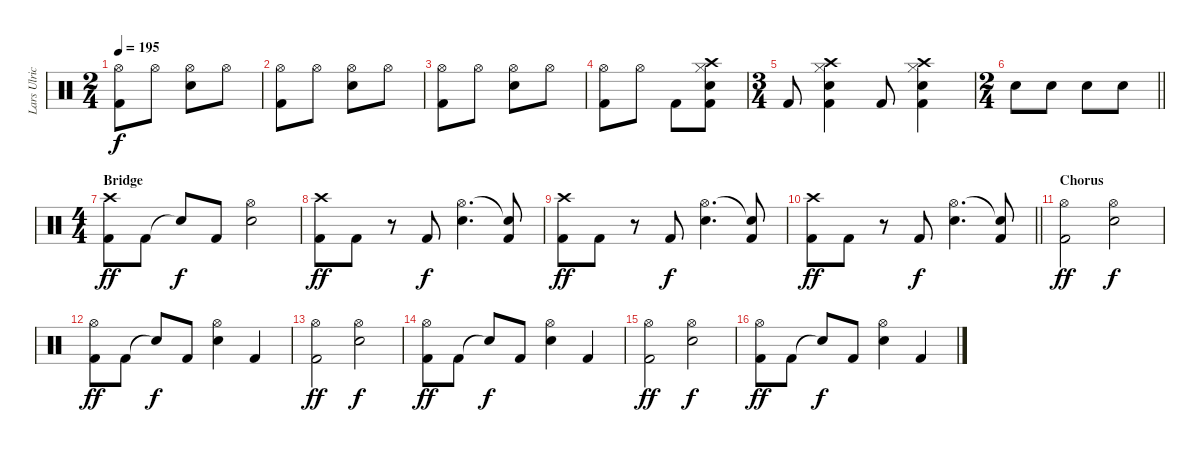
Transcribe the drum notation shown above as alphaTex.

\track ("Lars Ulrich" "Lars Ulric") {instrument percussion}
\staff {score}
\articulation defaults
\ts (2 4)
\tempo 195
\clef neutral
\ks c
("Kick (hit) 2" "Hi-Hat (open)").8{dy f} "Hi-Hat (open)".8 ("Snare (hit) 2" "Hi-Hat (open)").8 "Hi-Hat (open)".8 |
("Kick (hit) 2" "Hi-Hat (open)").8 "Hi-Hat (open)".8 ("Snare (hit) 2" "Hi-Hat (open)").8 "Hi-Hat (open)".8 |
("Kick (hit) 2" "Hi-Hat (open)").8 "Hi-Hat (open)".8 ("Snare (hit) 2" "Hi-Hat (open)").8 "Hi-Hat (open)".8 |
("Kick (hit) 2" "Hi-Hat (open)").8 "Hi-Hat (open)".8 "Kick (hit) 2".8 ("Kick (hit) 2" "Snare (hit) 2" "Hi-Hat (closed)" "Crash high (hit)").8 |
\ts (3 4)
"Kick (hit) 2".8 ("Kick (hit) 2" "Snare (hit) 2" "Hi-Hat (closed)" "Crash high (hit)").4 "Kick (hit) 2".8 ("Kick (hit) 2" "Snare (hit) 2" "Hi-Hat (closed)" "Crash high (hit)").4 |
\ts (2 4)
\barLineRight lightlight "Snare (hit) 2".8 "Snare (hit) 2".8 "Snare (hit) 2".8 "Snare (hit) 2".8
|
\ts (4 4)
\section ("" "Bridge")
("Kick (hit) 2" "Crash high (hit)").8{dy ff} "Kick (hit) 2".8 "Snare (hit)"{t}.8{dy f} "Kick (hit) 2".8 ("Snare (hit) 2" "Hi-Hat (open)").2 |
("Kick (hit) 2" "Crash high (hit)").8{dy ff} "Kick (hit) 2".8 r.8 "Kick (hit) 2".8{dy f} ("Snare (hit) 2" "Hi-Hat (open)").4{d} ("Kick (hit) 2" "Snare (hit)"{t}).8 |
("Kick (hit) 2" "Crash high (hit)").8{dy ff} "Kick (hit) 2".8 r.8 "Kick (hit) 2".8{dy f} ("Snare (hit) 2" "Hi-Hat (open)").4{d} ("Kick (hit) 2" "Snare (hit)"{t}).8 |
\barLineRight lightlight
("Kick (hit) 2" "Crash high (hit)").8{dy ff} "Kick (hit) 2".8 r.8 "Kick (hit) 2".8{dy f} ("Snare (hit) 2" "Hi-Hat (open)").4{d} ("Kick (hit) 2" "Snare (hit)"{t}).8 |
\section ("" "Chorus")
("Kick (hit) 2" "Hi-Hat (open)").2{dy ff} ("Snare (hit) 2" "Hi-Hat (open)").2{dy f} |
("Kick (hit) 2" "Hi-Hat (open)").8{dy ff} "Kick (hit) 2".8 "Snare (hit)"{t}.8{dy f} "Kick (hit) 2".8 ("Snare (hit) 2" "Hi-Hat (open)").4 "Kick (hit) 2".4 |
("Kick (hit) 2" "Hi-Hat (open)").2{dy ff} ("Snare (hit) 2" "Hi-Hat (open)").2{dy f} |
("Kick (hit) 2" "Hi-Hat (open)").8{dy ff} "Kick (hit) 2".8 "Snare (hit)"{t}.8{dy f} "Kick (hit) 2".8 ("Snare (hit) 2" "Hi-Hat (open)").4 "Kick (hit) 2".4 |
("Kick (hit) 2" "Hi-Hat (open)").2{dy ff} ("Snare (hit) 2" "Hi-Hat (open)").2{dy f} |
("Kick (hit) 2" "Hi-Hat (open)").8{dy ff} "Kick (hit) 2".8 "Snare (hit)"{t}.8{dy f} "Kick (hit) 2".8 ("Snare (hit) 2" "Hi-Hat (open)").4 "Kick (hit) 2".4
